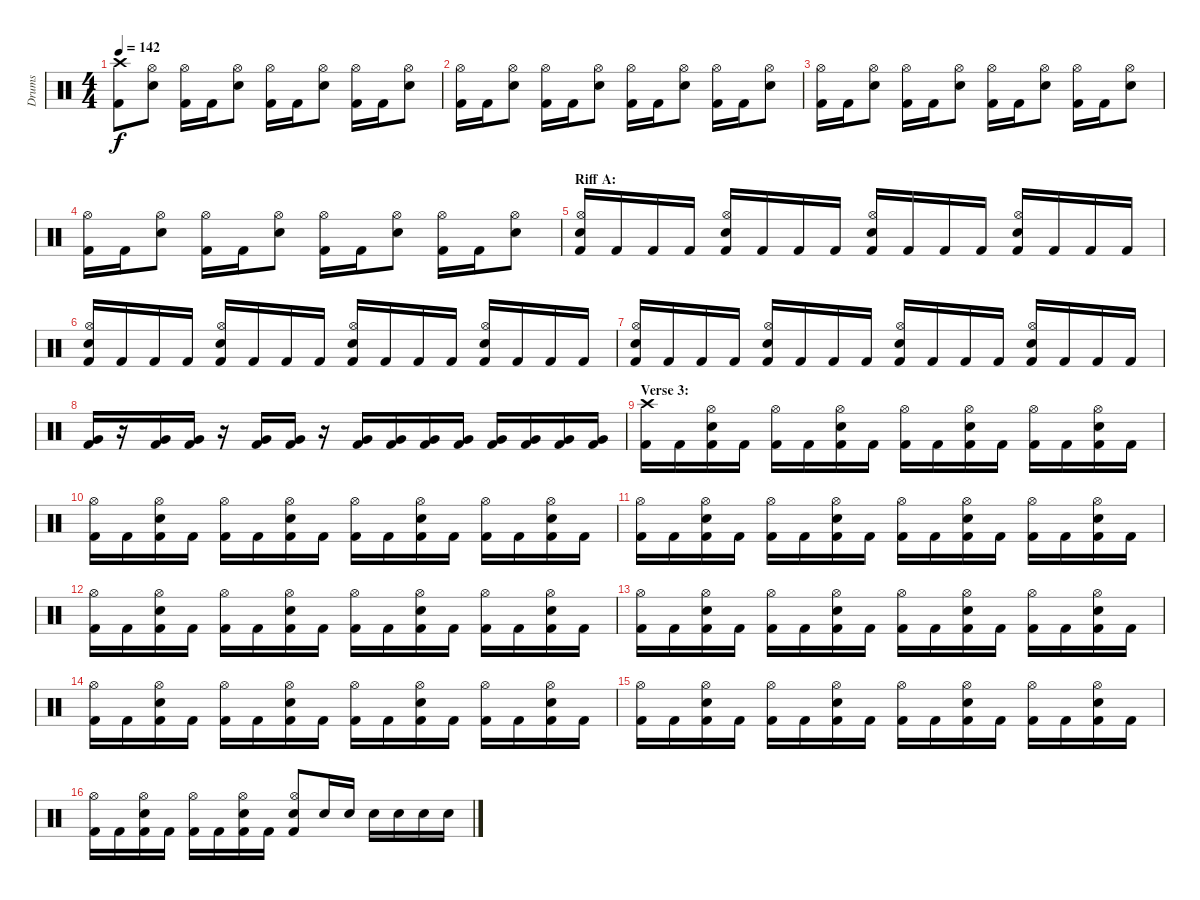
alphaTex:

\track ("Drums" "Drums") {instrument percussion}
\staff {score}
\articulation defaults
\ts (4 4)
\tempo 142
\clef neutral
\ks c
("Crash high (hit)" "Kick (hit) 2").8{dy f} ("Hi-Hat (open)" "Electric Snare (hit)").8 ("Hi-Hat (open)" "Kick (hit) 2").16 "Kick (hit) 2".16 ("Hi-Hat (open)" "Electric Snare (hit)").8 ("Hi-Hat (open)" "Kick (hit) 2").16 "Kick (hit) 2".16 ("Hi-Hat (open)" "Electric Snare (hit)").8 ("Hi-Hat (open)" "Kick (hit) 2").16 "Kick (hit) 2".16 ("Hi-Hat (open)" "Electric Snare (hit)").8 |
("Hi-Hat (open)" "Kick (hit) 2").16 "Kick (hit) 2".16 ("Hi-Hat (open)" "Electric Snare (hit)").8 ("Hi-Hat (open)" "Kick (hit) 2").16 "Kick (hit) 2".16 ("Hi-Hat (open)" "Electric Snare (hit)").8 ("Hi-Hat (open)" "Kick (hit) 2").16 "Kick (hit) 2".16 ("Hi-Hat (open)" "Electric Snare (hit)").8 ("Hi-Hat (open)" "Kick (hit) 2").16 "Kick (hit) 2".16 ("Hi-Hat (open)" "Electric Snare (hit)").8 |
("Hi-Hat (open)" "Kick (hit) 2").16 "Kick (hit) 2".16 ("Hi-Hat (open)" "Electric Snare (hit)").8 ("Hi-Hat (open)" "Kick (hit) 2").16 "Kick (hit) 2".16 ("Hi-Hat (open)" "Electric Snare (hit)").8 ("Hi-Hat (open)" "Kick (hit) 2").16 "Kick (hit) 2".16 ("Hi-Hat (open)" "Electric Snare (hit)").8 ("Hi-Hat (open)" "Kick (hit) 2").16 "Kick (hit) 2".16 ("Hi-Hat (open)" "Electric Snare (hit)").8 |
("Hi-Hat (open)" "Kick (hit) 2").16 "Kick (hit) 2".16 ("Hi-Hat (open)" "Electric Snare (hit)").8 ("Hi-Hat (open)" "Kick (hit) 2").16 "Kick (hit) 2".16 ("Hi-Hat (open)" "Electric Snare (hit)").8 ("Hi-Hat (open)" "Kick (hit) 2").16 "Kick (hit) 2".16 ("Hi-Hat (open)" "Electric Snare (hit)").8 ("Hi-Hat (open)" "Kick (hit) 2").16 "Kick (hit) 2".16 ("Hi-Hat (open)" "Electric Snare (hit)").8 |
\section ("" "Riff A:")
("Hi-Hat (open)" "Electric Snare (hit)" "Kick (hit) 2").16 "Kick (hit) 2".16 "Kick (hit) 2".16 "Kick (hit) 2".16 ("Hi-Hat (open)" "Electric Snare (hit)" "Kick (hit) 2").16 "Kick (hit) 2".16 "Kick (hit) 2".16 "Kick (hit) 2".16 ("Hi-Hat (open)" "Electric Snare (hit)" "Kick (hit) 2").16 "Kick (hit) 2".16 "Kick (hit) 2".16 "Kick (hit) 2".16 ("Hi-Hat (open)" "Electric Snare (hit)" "Kick (hit) 2").16 "Kick (hit) 2".16 "Kick (hit) 2".16 "Kick (hit) 2".16 |
("Hi-Hat (open)" "Electric Snare (hit)" "Kick (hit) 2").16 "Kick (hit) 2".16 "Kick (hit) 2".16 "Kick (hit) 2".16 ("Hi-Hat (open)" "Electric Snare (hit)" "Kick (hit) 2").16 "Kick (hit) 2".16 "Kick (hit) 2".16 "Kick (hit) 2".16 ("Hi-Hat (open)" "Electric Snare (hit)" "Kick (hit) 2").16 "Kick (hit) 2".16 "Kick (hit) 2".16 "Kick (hit) 2".16 ("Hi-Hat (open)" "Electric Snare (hit)" "Kick (hit) 2").16 "Kick (hit) 2".16 "Kick (hit) 2".16 "Kick (hit) 2".16 |
("Hi-Hat (open)" "Electric Snare (hit)" "Kick (hit) 2").16 "Kick (hit) 2".16 "Kick (hit) 2".16 "Kick (hit) 2".16 ("Hi-Hat (open)" "Electric Snare (hit)" "Kick (hit) 2").16 "Kick (hit) 2".16 "Kick (hit) 2".16 "Kick (hit) 2".16 ("Hi-Hat (open)" "Electric Snare (hit)" "Kick (hit) 2").16 "Kick (hit) 2".16 "Kick (hit) 2".16 "Kick (hit) 2".16 ("Hi-Hat (open)" "Electric Snare (hit)" "Kick (hit) 2").16 "Kick (hit) 2".16 "Kick (hit) 2".16 "Kick (hit) 2".16 |
("Very Low Tom (hit)" "Kick (hit) 2").16 r.16 ("Very Low Tom (hit)" "Kick (hit) 2").16 ("Very Low Tom (hit)" "Kick (hit) 2").16 r.16 ("Very Low Tom (hit)" "Kick (hit) 2").16 ("Very Low Tom (hit)" "Kick (hit) 2").16 r.16 ("Very Low Tom (hit)" "Kick (hit) 2").16 ("Very Low Tom (hit)" "Kick (hit) 2").16 ("Very Low Tom (hit)" "Kick (hit) 2").16 ("Very Low Tom (hit)" "Kick (hit) 2").16 ("Very Low Tom (hit)" "Kick (hit) 2").16 ("Very Low Tom (hit)" "Kick (hit) 2").16 ("Very Low Tom (hit)" "Kick (hit) 2").16 ("Very Low Tom (hit)" "Kick (hit) 2").16 |
\section ("" "Verse 3:")
("Crash high (hit)" "Kick (hit) 2").16 "Kick (hit) 2".16 ("Hi-Hat (open)" "Electric Snare (hit)" "Kick (hit) 2").16 "Kick (hit) 2".16 ("Hi-Hat (open)" "Kick (hit) 2").16 "Kick (hit) 2".16 ("Hi-Hat (open)" "Electric Snare (hit)" "Kick (hit) 2").16 "Kick (hit) 2".16 ("Hi-Hat (open)" "Kick (hit) 2").16 "Kick (hit) 2".16 ("Hi-Hat (open)" "Electric Snare (hit)" "Kick (hit) 2").16 "Kick (hit) 2".16 ("Hi-Hat (open)" "Kick (hit) 2").16 "Kick (hit) 2".16 ("Hi-Hat (open)" "Electric Snare (hit)" "Kick (hit) 2").16 "Kick (hit) 2".16 |
("Hi-Hat (open)" "Kick (hit) 2").16 "Kick (hit) 2".16 ("Hi-Hat (open)" "Electric Snare (hit)" "Kick (hit) 2").16 "Kick (hit) 2".16 ("Hi-Hat (open)" "Kick (hit) 2").16 "Kick (hit) 2".16 ("Hi-Hat (open)" "Electric Snare (hit)" "Kick (hit) 2").16 "Kick (hit) 2".16 ("Hi-Hat (open)" "Kick (hit) 2").16 "Kick (hit) 2".16 ("Hi-Hat (open)" "Electric Snare (hit)" "Kick (hit) 2").16 "Kick (hit) 2".16 ("Hi-Hat (open)" "Kick (hit) 2").16 "Kick (hit) 2".16 ("Hi-Hat (open)" "Electric Snare (hit)" "Kick (hit) 2").16 "Kick (hit) 2".16 |
("Hi-Hat (open)" "Kick (hit) 2").16 "Kick (hit) 2".16 ("Hi-Hat (open)" "Electric Snare (hit)" "Kick (hit) 2").16 "Kick (hit) 2".16 ("Hi-Hat (open)" "Kick (hit) 2").16 "Kick (hit) 2".16 ("Hi-Hat (open)" "Electric Snare (hit)" "Kick (hit) 2").16 "Kick (hit) 2".16 ("Hi-Hat (open)" "Kick (hit) 2").16 "Kick (hit) 2".16 ("Hi-Hat (open)" "Electric Snare (hit)" "Kick (hit) 2").16 "Kick (hit) 2".16 ("Hi-Hat (open)" "Kick (hit) 2").16 "Kick (hit) 2".16 ("Hi-Hat (open)" "Electric Snare (hit)" "Kick (hit) 2").16 "Kick (hit) 2".16 |
("Hi-Hat (open)" "Kick (hit) 2").16 "Kick (hit) 2".16 ("Hi-Hat (open)" "Electric Snare (hit)" "Kick (hit) 2").16 "Kick (hit) 2".16 ("Hi-Hat (open)" "Kick (hit) 2").16 "Kick (hit) 2".16 ("Hi-Hat (open)" "Electric Snare (hit)" "Kick (hit) 2").16 "Kick (hit) 2".16 ("Hi-Hat (open)" "Kick (hit) 2").16 "Kick (hit) 2".16 ("Hi-Hat (open)" "Electric Snare (hit)" "Kick (hit) 2").16 "Kick (hit) 2".16 ("Hi-Hat (open)" "Kick (hit) 2").16 "Kick (hit) 2".16 ("Hi-Hat (open)" "Electric Snare (hit)" "Kick (hit) 2").16 "Kick (hit) 2".16 |
("Hi-Hat (open)" "Kick (hit) 2").16 "Kick (hit) 2".16 ("Hi-Hat (open)" "Electric Snare (hit)" "Kick (hit) 2").16 "Kick (hit) 2".16 ("Hi-Hat (open)" "Kick (hit) 2").16 "Kick (hit) 2".16 ("Hi-Hat (open)" "Electric Snare (hit)" "Kick (hit) 2").16 "Kick (hit) 2".16 ("Hi-Hat (open)" "Kick (hit) 2").16 "Kick (hit) 2".16 ("Hi-Hat (open)" "Electric Snare (hit)" "Kick (hit) 2").16 "Kick (hit) 2".16 ("Hi-Hat (open)" "Kick (hit) 2").16 "Kick (hit) 2".16 ("Hi-Hat (open)" "Electric Snare (hit)" "Kick (hit) 2").16 "Kick (hit) 2".16 |
("Hi-Hat (open)" "Kick (hit) 2").16 "Kick (hit) 2".16 ("Hi-Hat (open)" "Electric Snare (hit)" "Kick (hit) 2").16 "Kick (hit) 2".16 ("Hi-Hat (open)" "Kick (hit) 2").16 "Kick (hit) 2".16 ("Hi-Hat (open)" "Electric Snare (hit)" "Kick (hit) 2").16 "Kick (hit) 2".16 ("Hi-Hat (open)" "Kick (hit) 2").16 "Kick (hit) 2".16 ("Hi-Hat (open)" "Electric Snare (hit)" "Kick (hit) 2").16 "Kick (hit) 2".16 ("Hi-Hat (open)" "Kick (hit) 2").16 "Kick (hit) 2".16 ("Hi-Hat (open)" "Electric Snare (hit)" "Kick (hit) 2").16 "Kick (hit) 2".16 |
("Hi-Hat (open)" "Kick (hit) 2").16 "Kick (hit) 2".16 ("Hi-Hat (open)" "Electric Snare (hit)" "Kick (hit) 2").16 "Kick (hit) 2".16 ("Hi-Hat (open)" "Kick (hit) 2").16 "Kick (hit) 2".16 ("Hi-Hat (open)" "Electric Snare (hit)" "Kick (hit) 2").16 "Kick (hit) 2".16 ("Hi-Hat (open)" "Kick (hit) 2").16 "Kick (hit) 2".16 ("Hi-Hat (open)" "Electric Snare (hit)" "Kick (hit) 2").16 "Kick (hit) 2".16 ("Hi-Hat (open)" "Kick (hit) 2").16 "Kick (hit) 2".16 ("Hi-Hat (open)" "Electric Snare (hit)" "Kick (hit) 2").16 "Kick (hit) 2".16 |
("Hi-Hat (open)" "Kick (hit) 2").16 "Kick (hit) 2".16 ("Hi-Hat (open)" "Electric Snare (hit)" "Kick (hit) 2").16 "Kick (hit) 2".16 ("Hi-Hat (open)" "Kick (hit) 2").16 "Kick (hit) 2".16 ("Hi-Hat (open)" "Electric Snare (hit)" "Kick (hit) 2").16 "Kick (hit) 2".16 ("Hi-Hat (open)" "Electric Snare (hit)" "Kick (hit) 2").8 "Electric Snare (hit)".16 "Electric Snare (hit)".16 "Electric Snare (hit)".16 "Electric Snare (hit)".16 "Electric Snare (hit)".16 "Electric Snare (hit)".16
